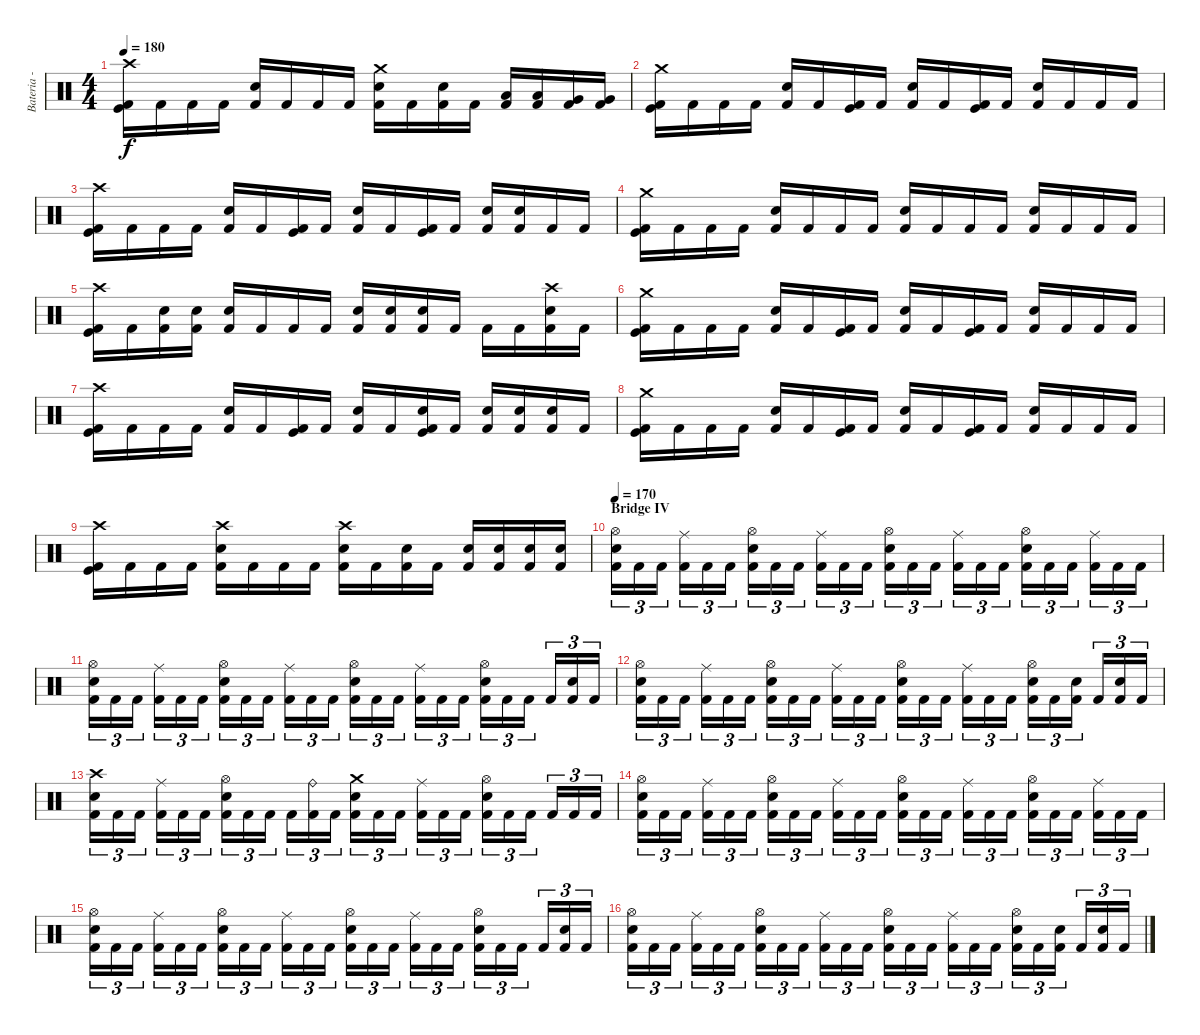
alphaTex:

\track ("Bateria - Drums" "Bateria - ") {instrument percussion}
\staff {score}
\articulation defaults
\ts (4 4)
\tempo 180
\clef neutral
\ks c
("Crash high (hit)" "Kick (hit)" "Kick (hit) 2").16{dy f} "Kick (hit) 2".16 "Kick (hit) 2".16 "Kick (hit) 2".16 ("Snare (hit) 2" "Kick (hit) 2").16 "Kick (hit) 2".16 "Kick (hit) 2".16 "Kick (hit) 2".16 ("Crash medium (hit)" "Snare (hit) 2" "Kick (hit) 2").16 "Kick (hit) 2".16 ("Electric Snare (hit)" "Kick (hit) 2").16 "Kick (hit) 2".16 ("Low Tom (hit)" "Kick (hit) 2").16 ("Low Tom (hit)" "Kick (hit) 2").16 ("Very Low Tom (hit)" "Kick (hit) 2").16 ("Very Low Tom (hit)" "Kick (hit) 2").16 |
("Crash medium (hit)" "Kick (hit)" "Kick (hit) 2").16 "Kick (hit) 2".16 "Kick (hit) 2".16 "Kick (hit) 2".16 ("Snare (hit) 2" "Kick (hit) 2").16 "Kick (hit) 2".16 ("Kick (hit)" "Kick (hit) 2").16 "Kick (hit) 2".16 ("Snare (hit) 2" "Kick (hit) 2").16 "Kick (hit) 2".16 ("Kick (hit)" "Kick (hit) 2").16 "Kick (hit) 2".16 ("Snare (hit) 2" "Kick (hit) 2").16 "Kick (hit) 2".16 "Kick (hit) 2".16 "Kick (hit) 2".16 |
("Crash high (hit)" "Kick (hit)" "Kick (hit) 2").16 "Kick (hit) 2".16 "Kick (hit) 2".16 "Kick (hit) 2".16 ("Snare (hit) 2" "Kick (hit) 2").16 "Kick (hit) 2".16 ("Kick (hit)" "Kick (hit) 2").16 "Kick (hit) 2".16 ("Snare (hit) 2" "Kick (hit) 2").16 "Kick (hit) 2".16 ("Kick (hit)" "Kick (hit) 2").16 "Kick (hit) 2".16 ("Snare (hit) 2" "Kick (hit) 2").16 ("Snare (hit) 2" "Kick (hit) 2").16 "Kick (hit) 2".16 "Kick (hit) 2".16 |
("Crash medium (hit)" "Kick (hit)" "Kick (hit) 2").16 "Kick (hit) 2".16 "Kick (hit) 2".16 "Kick (hit) 2".16 ("Snare (hit) 2" "Kick (hit) 2").16 "Kick (hit) 2".16 "Kick (hit) 2".16 "Kick (hit) 2".16 ("Snare (hit) 2" "Kick (hit) 2").16 "Kick (hit) 2".16 "Kick (hit) 2".16 "Kick (hit) 2".16 ("Snare (hit) 2" "Kick (hit) 2").16 "Kick (hit) 2".16 "Kick (hit) 2".16 "Kick (hit) 2".16 |
("Crash high (hit)" "Kick (hit)" "Kick (hit) 2").16 "Kick (hit) 2".16 ("Electric Snare (hit)" "Kick (hit) 2").16 ("Electric Snare (hit)" "Kick (hit) 2").16 ("Snare (hit) 2" "Kick (hit) 2").16 "Kick (hit) 2".16 "Kick (hit) 2".16 "Kick (hit) 2".16 ("Electric Snare (hit)" "Kick (hit) 2").16 ("Electric Snare (hit)" "Kick (hit) 2").16 ("Electric Snare (hit)" "Kick (hit) 2").16 "Kick (hit) 2".16 "Kick (hit) 2".16 "Kick (hit) 2".16 ("Crash high (hit)" "Snare (hit) 2" "Kick (hit) 2").16 "Kick (hit) 2".16 |
("Crash medium (hit)" "Kick (hit)" "Kick (hit) 2").16 "Kick (hit) 2".16 "Kick (hit) 2".16 "Kick (hit) 2".16 ("Snare (hit) 2" "Kick (hit) 2").16 "Kick (hit) 2".16 ("Kick (hit)" "Kick (hit) 2").16 "Kick (hit) 2".16 ("Snare (hit) 2" "Kick (hit) 2").16 "Kick (hit) 2".16 ("Kick (hit)" "Kick (hit) 2").16 "Kick (hit) 2".16 ("Snare (hit) 2" "Kick (hit) 2").16 "Kick (hit) 2".16 "Kick (hit) 2".16 "Kick (hit) 2".16 |
("Crash high (hit)" "Kick (hit)" "Kick (hit) 2").16 "Kick (hit) 2".16 "Kick (hit) 2".16 "Kick (hit) 2".16 ("Snare (hit) 2" "Kick (hit) 2").16 "Kick (hit) 2".16 ("Kick (hit)" "Kick (hit) 2").16 "Kick (hit) 2".16 ("Snare (hit) 2" "Kick (hit) 2").16 "Kick (hit) 2".16 ("Snare (hit) 2" "Kick (hit)" "Kick (hit) 2").16 "Kick (hit) 2".16 ("Snare (hit) 2" "Kick (hit) 2").16 ("Snare (hit) 2" "Kick (hit) 2").16 ("Snare (hit) 2" "Kick (hit) 2").16 "Kick (hit) 2".16 |
("Crash medium (hit)" "Kick (hit)" "Kick (hit) 2").16 "Kick (hit) 2".16 "Kick (hit) 2".16 "Kick (hit) 2".16 ("Snare (hit) 2" "Kick (hit) 2").16 "Kick (hit) 2".16 ("Kick (hit)" "Kick (hit) 2").16 "Kick (hit) 2".16 ("Snare (hit) 2" "Kick (hit) 2").16 "Kick (hit) 2".16 ("Kick (hit)" "Kick (hit) 2").16 "Kick (hit) 2".16 ("Snare (hit) 2" "Kick (hit) 2").16 "Kick (hit) 2".16 "Kick (hit) 2".16 "Kick (hit) 2".16 |
("Crash high (hit)" "Kick (hit)" "Kick (hit) 2").16 "Kick (hit) 2".16 "Kick (hit) 2".16 "Kick (hit) 2".16 ("Crash high (hit)" "Snare (hit) 2" "Kick (hit) 2").16 "Kick (hit) 2".16 "Kick (hit) 2".16 "Kick (hit) 2".16 ("Crash high (hit)" "Snare (hit) 2" "Kick (hit) 2").16 "Kick (hit) 2".16 ("Electric Snare (hit)" "Kick (hit) 2").16 "Kick (hit) 2".16 ("Snare (hit) 2" "Kick (hit) 2").16 ("Snare (hit) 2" "Kick (hit) 2").16 ("Snare (hit) 2" "Kick (hit) 2").16 ("Snare (hit) 2" "Kick (hit) 2").16 |
\section ("" "Bridge IV")
\tempo 170
("Hi-Hat (open)" "Snare (hit) 2" "Kick (hit) 2").16{tu (3 2)} "Kick (hit) 2".16{tu (3 2)} "Kick (hit) 2".16{tu (3 2)} ("Ride (middle)" "Kick (hit) 2").16{tu (3 2)} "Kick (hit) 2".16{tu (3 2)} "Kick (hit) 2".16{tu (3 2)} ("Hi-Hat (open)" "Electric Snare (hit)" "Kick (hit) 2").16{tu (3 2)} "Kick (hit) 2".16{tu (3 2)} "Kick (hit) 2".16{tu (3 2)} ("Ride (middle)" "Kick (hit) 2").16{tu (3 2)} "Kick (hit) 2".16{tu (3 2)} "Kick (hit) 2".16{tu (3 2)} ("Hi-Hat (open)" "Snare (hit) 2" "Kick (hit) 2").16{tu (3 2)} "Kick (hit) 2".16{tu (3 2)} "Kick (hit) 2".16{tu (3 2)} ("Ride (middle)" "Kick (hit) 2").16{tu (3 2)} "Kick (hit) 2".16{tu (3 2)} "Kick (hit) 2".16{tu (3 2)} ("Hi-Hat (open)" "Electric Snare (hit)" "Kick (hit) 2").16{tu (3 2)} "Kick (hit) 2".16{tu (3 2)} "Kick (hit) 2".16{tu (3 2)} ("Ride (middle)" "Kick (hit) 2").16{tu (3 2)} "Kick (hit) 2".16{tu (3 2)} "Kick (hit) 2".16{tu (3 2)} |
("Hi-Hat (open)" "Snare (hit) 2" "Kick (hit) 2").16{tu (3 2)} "Kick (hit) 2".16{tu (3 2)} "Kick (hit) 2".16{tu (3 2)} ("Ride (middle)" "Kick (hit) 2").16{tu (3 2)} "Kick (hit) 2".16{tu (3 2)} "Kick (hit) 2".16{tu (3 2)} ("Hi-Hat (open)" "Electric Snare (hit)" "Kick (hit) 2").16{tu (3 2)} "Kick (hit) 2".16{tu (3 2)} "Kick (hit) 2".16{tu (3 2)} ("Ride (middle)" "Kick (hit) 2").16{tu (3 2)} "Kick (hit) 2".16{tu (3 2)} "Kick (hit) 2".16{tu (3 2)} ("Hi-Hat (open)" "Snare (hit) 2" "Kick (hit) 2").16{tu (3 2)} "Kick (hit) 2".16{tu (3 2)} "Kick (hit) 2".16{tu (3 2)} ("Ride (middle)" "Kick (hit) 2").16{tu (3 2)} "Kick (hit) 2".16{tu (3 2)} "Kick (hit) 2".16{tu (3 2)} ("Hi-Hat (open)" "Electric Snare (hit)" "Kick (hit) 2").16{tu (3 2)} "Kick (hit) 2".16{tu (3 2)} "Kick (hit) 2".16{tu (3 2)} "Kick (hit) 2".16{tu (3 2)} ("Electric Snare (hit)" "Kick (hit) 2").16{tu (3 2)} "Kick (hit) 2".16{tu (3 2)} |
("Hi-Hat (open)" "Snare (hit) 2" "Kick (hit) 2").16{tu (3 2)} "Kick (hit) 2".16{tu (3 2)} "Kick (hit) 2".16{tu (3 2)} ("Ride (middle)" "Kick (hit) 2").16{tu (3 2)} "Kick (hit) 2".16{tu (3 2)} "Kick (hit) 2".16{tu (3 2)} ("Hi-Hat (open)" "Electric Snare (hit)" "Kick (hit) 2").16{tu (3 2)} "Kick (hit) 2".16{tu (3 2)} "Kick (hit) 2".16{tu (3 2)} ("Ride (middle)" "Kick (hit) 2").16{tu (3 2)} "Kick (hit) 2".16{tu (3 2)} "Kick (hit) 2".16{tu (3 2)} ("Hi-Hat (open)" "Snare (hit) 2" "Kick (hit) 2").16{tu (3 2)} "Kick (hit) 2".16{tu (3 2)} "Kick (hit) 2".16{tu (3 2)} ("Ride (middle)" "Kick (hit) 2").16{tu (3 2)} "Kick (hit) 2".16{tu (3 2)} "Kick (hit) 2".16{tu (3 2)} ("Hi-Hat (open)" "Electric Snare (hit)" "Kick (hit) 2").16{tu (3 2)} "Kick (hit) 2".16{tu (3 2)} ("Electric Snare (hit)" "Kick (hit) 2").16{tu (3 2)} "Kick (hit) 2".16{tu (3 2)} ("Electric Snare (hit)" "Kick (hit) 2").16{tu (3 2)} "Kick (hit) 2".16{tu (3 2)} |
("Crash high (hit)" "Snare (hit) 2" "Kick (hit) 2").16{tu (3 2)} "Kick (hit) 2".16{tu (3 2)} "Kick (hit) 2".16{tu (3 2)} ("Ride (middle)" "Kick (hit) 2").16{tu (3 2)} "Kick (hit) 2".16{tu (3 2)} "Kick (hit) 2".16{tu (3 2)} ("Hi-Hat (open)" "Electric Snare (hit)" "Kick (hit) 2").16{tu (3 2)} "Kick (hit) 2".16{tu (3 2)} "Kick (hit) 2".16{tu (3 2)} "Kick (hit) 2".16{tu (3 2)} ("Ride (bell)" "Kick (hit) 2").16{tu (3 2)} "Kick (hit) 2".16{tu (3 2)} ("Crash medium (hit)" "Snare (hit) 2" "Kick (hit) 2").16{tu (3 2)} "Kick (hit) 2".16{tu (3 2)} "Kick (hit) 2".16{tu (3 2)} ("Ride (middle)" "Kick (hit) 2").16{tu (3 2)} "Kick (hit) 2".16{tu (3 2)} "Kick (hit) 2".16{tu (3 2)} ("Hi-Hat (open)" "Electric Snare (hit)" "Kick (hit) 2").16{tu (3 2)} "Kick (hit) 2".16{tu (3 2)} "Kick (hit) 2".16{tu (3 2)} "Kick (hit) 2".16{tu (3 2)} "Kick (hit) 2".16{tu (3 2)} "Kick (hit) 2".16{tu (3 2)} |
("Hi-Hat (open)" "Snare (hit) 2" "Kick (hit) 2").16{tu (3 2)} "Kick (hit) 2".16{tu (3 2)} "Kick (hit) 2".16{tu (3 2)} ("Ride (middle)" "Kick (hit) 2").16{tu (3 2)} "Kick (hit) 2".16{tu (3 2)} "Kick (hit) 2".16{tu (3 2)} ("Hi-Hat (open)" "Electric Snare (hit)" "Kick (hit) 2").16{tu (3 2)} "Kick (hit) 2".16{tu (3 2)} "Kick (hit) 2".16{tu (3 2)} ("Ride (middle)" "Kick (hit) 2").16{tu (3 2)} "Kick (hit) 2".16{tu (3 2)} "Kick (hit) 2".16{tu (3 2)} ("Hi-Hat (open)" "Snare (hit) 2" "Kick (hit) 2").16{tu (3 2)} "Kick (hit) 2".16{tu (3 2)} "Kick (hit) 2".16{tu (3 2)} ("Ride (middle)" "Kick (hit) 2").16{tu (3 2)} "Kick (hit) 2".16{tu (3 2)} "Kick (hit) 2".16{tu (3 2)} ("Hi-Hat (open)" "Electric Snare (hit)" "Kick (hit) 2").16{tu (3 2)} "Kick (hit) 2".16{tu (3 2)} "Kick (hit) 2".16{tu (3 2)} ("Ride (middle)" "Kick (hit) 2").16{tu (3 2)} "Kick (hit) 2".16{tu (3 2)} "Kick (hit) 2".16{tu (3 2)} |
("Hi-Hat (open)" "Snare (hit) 2" "Kick (hit) 2").16{tu (3 2)} "Kick (hit) 2".16{tu (3 2)} "Kick (hit) 2".16{tu (3 2)} ("Ride (middle)" "Kick (hit) 2").16{tu (3 2)} "Kick (hit) 2".16{tu (3 2)} "Kick (hit) 2".16{tu (3 2)} ("Hi-Hat (open)" "Electric Snare (hit)" "Kick (hit) 2").16{tu (3 2)} "Kick (hit) 2".16{tu (3 2)} "Kick (hit) 2".16{tu (3 2)} ("Ride (middle)" "Kick (hit) 2").16{tu (3 2)} "Kick (hit) 2".16{tu (3 2)} "Kick (hit) 2".16{tu (3 2)} ("Hi-Hat (open)" "Snare (hit) 2" "Kick (hit) 2").16{tu (3 2)} "Kick (hit) 2".16{tu (3 2)} "Kick (hit) 2".16{tu (3 2)} ("Ride (middle)" "Kick (hit) 2").16{tu (3 2)} "Kick (hit) 2".16{tu (3 2)} "Kick (hit) 2".16{tu (3 2)} ("Hi-Hat (open)" "Electric Snare (hit)" "Kick (hit) 2").16{tu (3 2)} "Kick (hit) 2".16{tu (3 2)} "Kick (hit) 2".16{tu (3 2)} "Kick (hit) 2".16{tu (3 2)} ("Electric Snare (hit)" "Kick (hit) 2").16{tu (3 2)} "Kick (hit) 2".16{tu (3 2)} |
("Hi-Hat (open)" "Snare (hit) 2" "Kick (hit) 2").16{tu (3 2)} "Kick (hit) 2".16{tu (3 2)} "Kick (hit) 2".16{tu (3 2)} ("Ride (middle)" "Kick (hit) 2").16{tu (3 2)} "Kick (hit) 2".16{tu (3 2)} "Kick (hit) 2".16{tu (3 2)} ("Hi-Hat (open)" "Electric Snare (hit)" "Kick (hit) 2").16{tu (3 2)} "Kick (hit) 2".16{tu (3 2)} "Kick (hit) 2".16{tu (3 2)} ("Ride (middle)" "Kick (hit) 2").16{tu (3 2)} "Kick (hit) 2".16{tu (3 2)} "Kick (hit) 2".16{tu (3 2)} ("Hi-Hat (open)" "Snare (hit) 2" "Kick (hit) 2").16{tu (3 2)} "Kick (hit) 2".16{tu (3 2)} "Kick (hit) 2".16{tu (3 2)} ("Ride (middle)" "Kick (hit) 2").16{tu (3 2)} "Kick (hit) 2".16{tu (3 2)} "Kick (hit) 2".16{tu (3 2)} ("Hi-Hat (open)" "Electric Snare (hit)" "Kick (hit) 2").16{tu (3 2)} "Kick (hit) 2".16{tu (3 2)} ("Electric Snare (hit)" "Kick (hit) 2").16{tu (3 2)} "Kick (hit) 2".16{tu (3 2)} ("Electric Snare (hit)" "Kick (hit) 2").16{tu (3 2)} "Kick (hit) 2".16{tu (3 2)}
